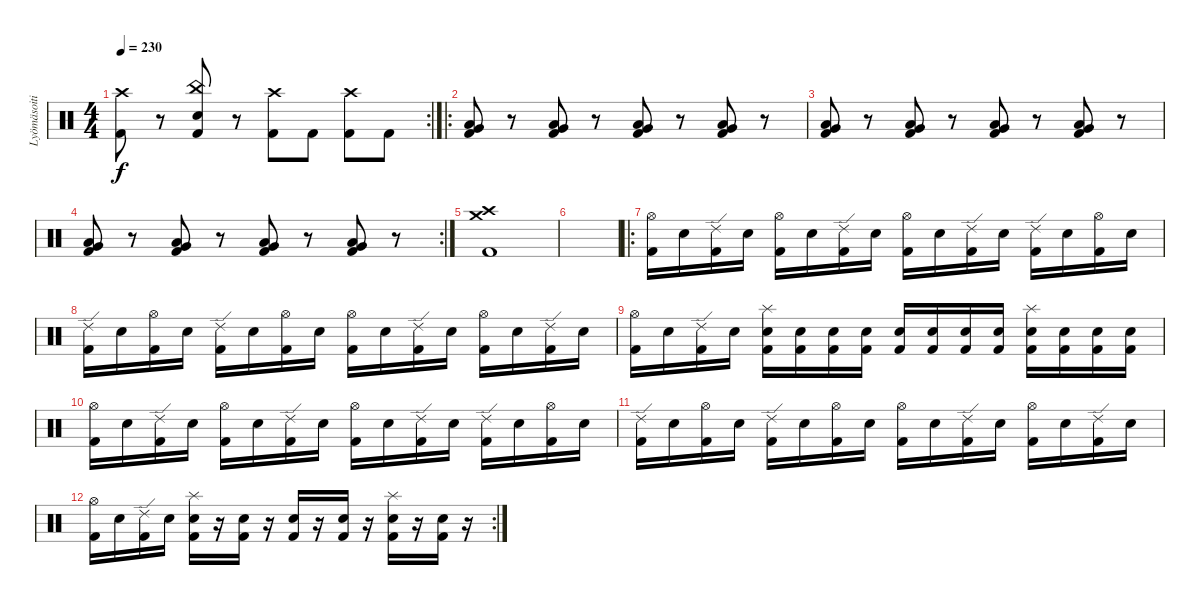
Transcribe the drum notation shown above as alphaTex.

\track ("Lyömäsoitin" "Lyömäsoiti") {instrument percussion}
\staff {score}
\articulation defaults
\rc 2
\ts (4 4)
\tempo 230
\clef neutral
\ks c
("Crash high (hit)" "Kick (hit) 2").8{dy f} r.8 ("China (hit)" "Snare (hit) 2" "Kick (hit) 2").8 r.8 ("Crash high (hit)" "Kick (hit) 2").8 "Kick (hit) 2".8 ("Crash high (hit)" "Kick (hit) 2").8 "Kick (hit) 2".8 |
\ro
("Very Low Tom (hit)" "Low Floor Tom (hit)" "Kick (hit) 2").8 r.8 ("Very Low Tom (hit)" "Low Floor Tom (hit)" "Kick (hit) 2").8 r.8 ("Very Low Tom (hit)" "Low Floor Tom (hit)" "Kick (hit) 2").8 r.8 ("Very Low Tom (hit)" "Low Floor Tom (hit)" "Kick (hit) 2").8 r.8 |
("Very Low Tom (hit)" "Low Floor Tom (hit)" "Kick (hit) 2").8 r.8 ("Very Low Tom (hit)" "Low Floor Tom (hit)" "Kick (hit) 2").8 r.8 ("Very Low Tom (hit)" "Low Floor Tom (hit)" "Kick (hit) 2").8 r.8 ("Very Low Tom (hit)" "Low Floor Tom (hit)" "Kick (hit) 2").8 r.8 |
\rc 2
("Very Low Tom (hit)" "Low Floor Tom (hit)" "Kick (hit) 2").8 r.8 ("Very Low Tom (hit)" "Low Floor Tom (hit)" "Kick (hit) 2").8 r.8 ("Very Low Tom (hit)" "Low Floor Tom (hit)" "Kick (hit) 2").8 r.8 ("Very Low Tom (hit)" "Low Floor Tom (hit)" "Kick (hit) 2").8 r.8 |
("Crash medium (hit)" "Crash high (hit)" "Kick (hit) 2").1 |
|
\ro
("Hi-Hat (open)" "Kick (hit) 2").16 "Snare (hit) 2".16 ("Ride (edge) 2" "Kick (hit) 2").16 "Snare (hit) 2".16 ("Hi-Hat (open)" "Kick (hit) 2").16 "Snare (hit) 2".16 ("Ride (edge) 2" "Kick (hit) 2").16 "Snare (hit) 2".16 ("Hi-Hat (open)" "Kick (hit) 2").16 "Snare (hit) 2".16 ("Ride (edge) 2" "Kick (hit) 2").16 "Snare (hit) 2".16 ("Ride (edge) 2" "Kick (hit) 2").16 "Snare (hit) 2".16 ("Hi-Hat (open)" "Kick (hit) 2").16 "Snare (hit) 2".16 |
("Ride (edge) 2" "Kick (hit) 2").16 "Snare (hit) 2".16 ("Hi-Hat (open)" "Kick (hit) 2").16 "Snare (hit) 2".16 ("Ride (edge) 2" "Kick (hit) 2").16 "Snare (hit) 2".16 ("Hi-Hat (open)" "Kick (hit) 2").16 "Snare (hit) 2".16 ("Hi-Hat (open)" "Kick (hit) 2").16 "Snare (hit) 2".16 ("Ride (edge) 2" "Kick (hit) 2").16 "Snare (hit) 2".16 ("Hi-Hat (open)" "Kick (hit) 2").16 "Snare (hit) 2".16 ("Ride (edge) 2" "Kick (hit) 2").16 "Snare (hit) 2".16 |
("Hi-Hat (open)" "Kick (hit) 2").16 "Snare (hit) 2".16 ("Ride (edge) 2" "Kick (hit) 2").16 "Snare (hit) 2".16 ("Splash (hit)" "Snare (hit) 2" "Kick (hit) 2").16 ("Snare (hit) 2" "Kick (hit) 2").16 ("Snare (hit) 2" "Kick (hit) 2").16 ("Snare (hit) 2" "Kick (hit) 2").16 ("Snare (hit) 2" "Kick (hit) 2").16 ("Snare (hit) 2" "Kick (hit) 2").16 ("Snare (hit) 2" "Kick (hit) 2").16 ("Snare (hit) 2" "Kick (hit) 2").16 ("Splash (hit)" "Snare (hit) 2" "Kick (hit) 2").16 ("Snare (hit) 2" "Kick (hit) 2").16 ("Snare (hit) 2" "Kick (hit) 2").16 ("Snare (hit) 2" "Kick (hit) 2").16 |
("Hi-Hat (open)" "Kick (hit) 2").16 "Snare (hit) 2".16 ("Ride (edge) 2" "Kick (hit) 2").16 "Snare (hit) 2".16 ("Hi-Hat (open)" "Kick (hit) 2").16 "Snare (hit) 2".16 ("Ride (edge) 2" "Kick (hit) 2").16 "Snare (hit) 2".16 ("Hi-Hat (open)" "Kick (hit) 2").16 "Snare (hit) 2".16 ("Ride (edge) 2" "Kick (hit) 2").16 "Snare (hit) 2".16 ("Ride (edge) 2" "Kick (hit) 2").16 "Snare (hit) 2".16 ("Hi-Hat (open)" "Kick (hit) 2").16 "Snare (hit) 2".16 |
("Ride (edge) 2" "Kick (hit) 2").16 "Snare (hit) 2".16 ("Hi-Hat (open)" "Kick (hit) 2").16 "Snare (hit) 2".16 ("Ride (edge) 2" "Kick (hit) 2").16 "Snare (hit) 2".16 ("Hi-Hat (open)" "Kick (hit) 2").16 "Snare (hit) 2".16 ("Hi-Hat (open)" "Kick (hit) 2").16 "Snare (hit) 2".16 ("Ride (edge) 2" "Kick (hit) 2").16 "Snare (hit) 2".16 ("Hi-Hat (open)" "Kick (hit) 2").16 "Snare (hit) 2".16 ("Ride (edge) 2" "Kick (hit) 2").16 "Snare (hit) 2".16 |
\rc 2
("Hi-Hat (open)" "Kick (hit) 2").16 "Snare (hit) 2".16 ("Ride (edge) 2" "Kick (hit) 2").16 "Snare (hit) 2".16 ("Splash (hit)" "Snare (hit) 2" "Kick (hit) 2").16 r.16 ("Snare (hit) 2" "Kick (hit) 2").16 r.16 ("Snare (hit) 2" "Kick (hit) 2").16 r.16 ("Snare (hit) 2" "Kick (hit) 2").16 r.16 ("Splash (hit)" "Snare (hit) 2" "Kick (hit) 2").16 r.16 ("Snare (hit) 2" "Kick (hit) 2").16 r.16
